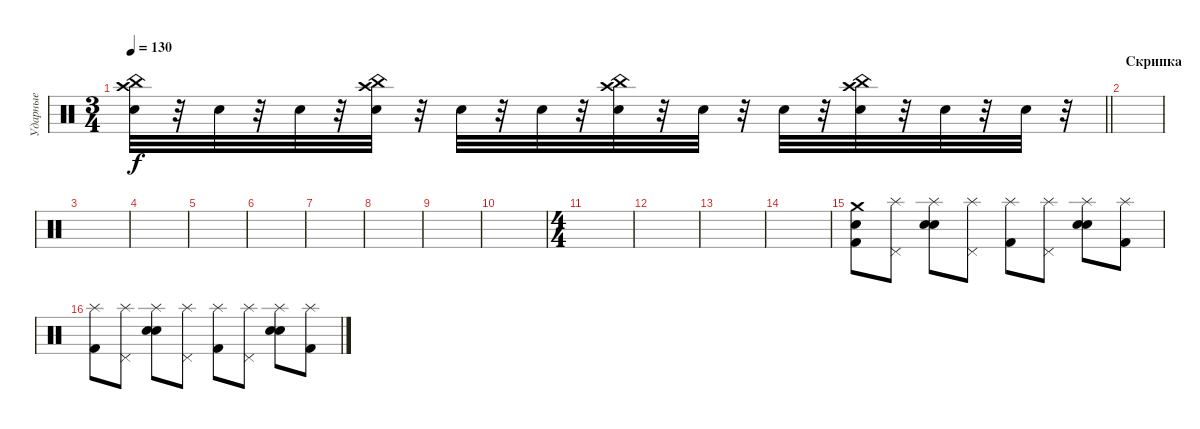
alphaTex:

\track ("Ударные" "Ударные") {instrument percussion}
\staff {score}
\articulation defaults
\ts (3 4)
\tempo 130
\clef neutral
\barLineRight lightlight
\ks c
("Electric Snare (hit)" "Crash high (hit)" "China (hit)").32{dy f} r.32 "Electric Snare (hit)".32 r.32 "Electric Snare (hit)".32 r.32 ("Electric Snare (hit)" "Crash high (hit)" "China (hit)").32 r.32 "Electric Snare (hit)".32 r.32 "Electric Snare (hit)".32 r.32 ("Electric Snare (hit)" "Crash high (hit)" "China (hit)").32 r.32 "Electric Snare (hit)".32 r.32 "Electric Snare (hit)".32 r.32 ("Electric Snare (hit)" "Crash high (hit)" "China (hit)").32 r.32 "Electric Snare (hit)".32 r.32 "Electric Snare (hit)".32 r.32 |
\section ("" "Скрипка")
|
|
|
|
|
|
|
|
|
\ts (4 4)
|
|
|
|
("Kick (hit) 2" "Electric Snare (hit)" "Crash medium (hit)").8 ("Pedal Hi-Hat (hit)" "Splash (hit)").8 ("Snare (hit) 2" "Splash (hit)" "Electric Snare (hit)").8 ("Pedal Hi-Hat (hit)" "Splash (hit)").8 ("Kick (hit) 2" "Splash (hit)").8 ("Pedal Hi-Hat (hit)" "Splash (hit)").8 ("Snare (hit) 2" "Splash (hit)" "Electric Snare (hit)").8 ("Kick (hit) 2" "Splash (hit)").8 |
("Kick (hit) 2" "Splash (hit)").8 ("Pedal Hi-Hat (hit)" "Splash (hit)").8 ("Snare (hit) 2" "Splash (hit)" "Electric Snare (hit)").8 ("Pedal Hi-Hat (hit)" "Splash (hit)").8 ("Kick (hit) 2" "Splash (hit)").8 ("Pedal Hi-Hat (hit)" "Splash (hit)").8 ("Snare (hit) 2" "Splash (hit)" "Electric Snare (hit)").8 ("Kick (hit) 2" "Splash (hit)").8
